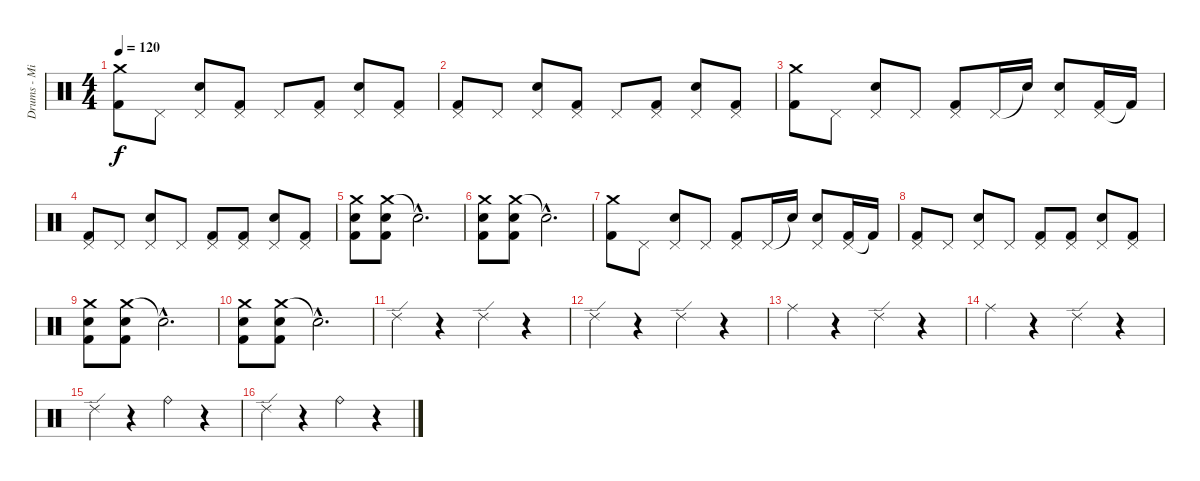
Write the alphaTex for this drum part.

\track ("Drums - Mike Dee" "Drums - Mi") {instrument percussion}
\staff {score}
\articulation defaults
\ts (4 4)
\tempo 120
\clef neutral
\ks c
("Crash medium (hit)" "Kick (hit) 2").8{dy f} "Pedal Hi-Hat (hit)".8 ("Pedal Hi-Hat (hit)" "Snare (hit) 2").8 ("Pedal Hi-Hat (hit)" "Kick (hit) 2").8 "Pedal Hi-Hat (hit)".8 ("Pedal Hi-Hat (hit)" "Kick (hit) 2").8 ("Pedal Hi-Hat (hit)" "Snare (hit) 2").8 ("Pedal Hi-Hat (hit)" "Kick (hit) 2").8 |
("Pedal Hi-Hat (hit)" "Kick (hit) 2").8 "Pedal Hi-Hat (hit)".8 ("Pedal Hi-Hat (hit)" "Snare (hit) 2").8 ("Pedal Hi-Hat (hit)" "Kick (hit) 2").8 "Pedal Hi-Hat (hit)".8 ("Pedal Hi-Hat (hit)" "Kick (hit) 2").8 ("Pedal Hi-Hat (hit)" "Snare (hit) 2").8 ("Pedal Hi-Hat (hit)" "Kick (hit) 2").8 |
("Crash medium (hit)" "Kick (hit) 2").8 "Pedal Hi-Hat (hit)".8 ("Pedal Hi-Hat (hit)" "Snare (hit) 2").8 "Pedal Hi-Hat (hit)".8 ("Pedal Hi-Hat (hit)" "Kick (hit) 2").8 "Pedal Hi-Hat (hit)".16 "Snare (hit)"{t}.16 ("Pedal Hi-Hat (hit)" "Snare (hit) 2").8 ("Pedal Hi-Hat (hit)" "Kick (hit) 2").16 "Kick (hit) 2"{t}.16 |
("Pedal Hi-Hat (hit)" "Kick (hit) 2").8 "Pedal Hi-Hat (hit)".8 ("Pedal Hi-Hat (hit)" "Snare (hit) 2").8 "Pedal Hi-Hat (hit)".8 ("Pedal Hi-Hat (hit)" "Kick (hit) 2").8 ("Pedal Hi-Hat (hit)" "Kick (hit) 2").8 ("Pedal Hi-Hat (hit)" "Snare (hit) 2").8 ("Pedal Hi-Hat (hit)" "Kick (hit) 2").8 |
("Crash medium (hit)" "Snare (hit) 2" "Kick (hit) 2").8 ("Crash medium (hit)" "Snare (hit) 2" "Kick (hit) 2").8 "Snare (hit)"{hac t}.2{d} |
("Crash medium (hit)" "Snare (hit) 2" "Kick (hit) 2").8 ("Crash medium (hit)" "Snare (hit) 2" "Kick (hit) 2").8 "Snare (hit)"{hac t}.2{d} |
("Crash medium (hit)" "Kick (hit) 2").8 "Pedal Hi-Hat (hit)".8 ("Pedal Hi-Hat (hit)" "Snare (hit) 2").8 "Pedal Hi-Hat (hit)".8 ("Pedal Hi-Hat (hit)" "Kick (hit) 2").8 "Pedal Hi-Hat (hit)".16 "Snare (hit)"{t}.16 ("Pedal Hi-Hat (hit)" "Snare (hit) 2").8 ("Pedal Hi-Hat (hit)" "Kick (hit) 2").16 "Kick (hit) 2"{t}.16 |
("Pedal Hi-Hat (hit)" "Kick (hit) 2").8 "Pedal Hi-Hat (hit)".8 ("Pedal Hi-Hat (hit)" "Snare (hit) 2").8 "Pedal Hi-Hat (hit)".8 ("Pedal Hi-Hat (hit)" "Kick (hit) 2").8 ("Pedal Hi-Hat (hit)" "Kick (hit) 2").8 ("Pedal Hi-Hat (hit)" "Snare (hit) 2").8 ("Pedal Hi-Hat (hit)" "Kick (hit) 2").8 |
("Crash medium (hit)" "Snare (hit) 2" "Kick (hit) 2").8 ("Crash medium (hit)" "Snare (hit) 2" "Kick (hit) 2").8 "Snare (hit)"{hac t}.2{d} |
("Crash medium (hit)" "Snare (hit) 2" "Kick (hit) 2").8 ("Crash medium (hit)" "Snare (hit) 2" "Kick (hit) 2").8 "Snare (hit)"{hac t}.2{d} |
"Ride (edge) 2".4 r.4 "Ride (edge) 2".4 r.4 |
"Ride (edge) 2".4 r.4 "Ride (edge) 2".4 r.4 |
"Ride (middle)".4 r.4 "Ride (edge) 2".4 r.4 |
"Ride (middle)".4 r.4 "Ride (edge) 2".4 r.4 |
"Ride (edge) 2".4 r.4 "Ride (bell)".4 r.4 |
"Ride (edge) 2".4 r.4 "Ride (bell)".4 r.4
